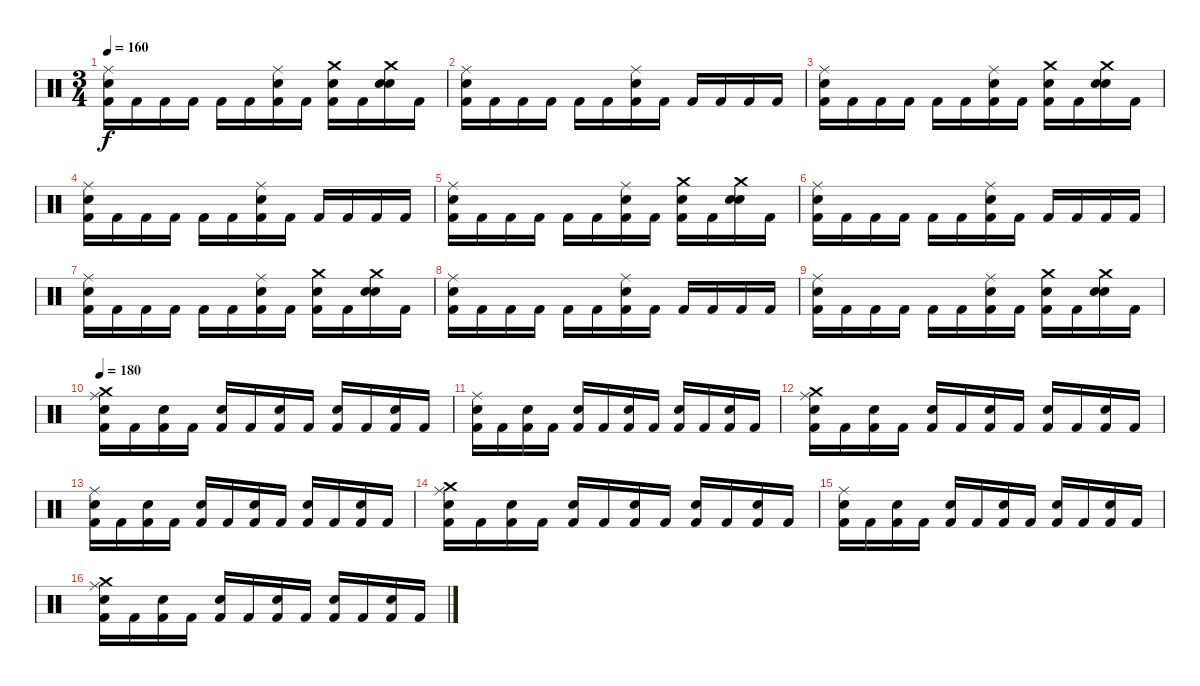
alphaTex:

\track "" {instrument percussion}
\staff {score}
\articulation defaults
\ts (3 4)
\tempo 160
\clef neutral
\ks c
("Ride (middle)" "Snare (hit) 2" "Kick (hit) 2").16{dy f} "Kick (hit) 2".16 "Kick (hit) 2".16 "Kick (hit) 2".16 "Kick (hit) 2".16 "Kick (hit) 2".16 ("Ride (middle)" "Snare (hit) 2" "Kick (hit) 2").16 "Kick (hit) 2".16 ("Crash medium (hit)" "Snare (hit) 2" "Kick (hit) 2").16 "Kick (hit) 2".16 ("Crash medium (hit)" "Snare (hit) 2" "Snare (hit) 2").16 "Kick (hit) 2".16 |
("Ride (middle)" "Snare (hit) 2" "Kick (hit) 2").16 "Kick (hit) 2".16 "Kick (hit) 2".16 "Kick (hit) 2".16 "Kick (hit) 2".16 "Kick (hit) 2".16 ("Ride (middle)" "Snare (hit) 2" "Kick (hit) 2").16 "Kick (hit) 2".16 "Kick (hit) 2".16 "Kick (hit) 2".16 "Kick (hit) 2".16 "Kick (hit) 2".16 |
("Ride (middle)" "Snare (hit) 2" "Kick (hit) 2").16 "Kick (hit) 2".16 "Kick (hit) 2".16 "Kick (hit) 2".16 "Kick (hit) 2".16 "Kick (hit) 2".16 ("Ride (middle)" "Snare (hit) 2" "Kick (hit) 2").16 "Kick (hit) 2".16 ("Crash medium (hit)" "Snare (hit) 2" "Kick (hit) 2").16 "Kick (hit) 2".16 ("Crash medium (hit)" "Snare (hit) 2" "Snare (hit) 2").16 "Kick (hit) 2".16 |
("Ride (middle)" "Snare (hit) 2" "Kick (hit) 2").16 "Kick (hit) 2".16 "Kick (hit) 2".16 "Kick (hit) 2".16 "Kick (hit) 2".16 "Kick (hit) 2".16 ("Ride (middle)" "Snare (hit) 2" "Kick (hit) 2").16 "Kick (hit) 2".16 "Kick (hit) 2".16 "Kick (hit) 2".16 "Kick (hit) 2".16 "Kick (hit) 2".16 |
("Ride (middle)" "Snare (hit) 2" "Kick (hit) 2").16 "Kick (hit) 2".16 "Kick (hit) 2".16 "Kick (hit) 2".16 "Kick (hit) 2".16 "Kick (hit) 2".16 ("Ride (middle)" "Snare (hit) 2" "Kick (hit) 2").16 "Kick (hit) 2".16 ("Crash medium (hit)" "Snare (hit) 2" "Kick (hit) 2").16 "Kick (hit) 2".16 ("Crash medium (hit)" "Snare (hit) 2" "Snare (hit) 2").16 "Kick (hit) 2".16 |
("Ride (middle)" "Snare (hit) 2" "Kick (hit) 2").16 "Kick (hit) 2".16 "Kick (hit) 2".16 "Kick (hit) 2".16 "Kick (hit) 2".16 "Kick (hit) 2".16 ("Ride (middle)" "Snare (hit) 2" "Kick (hit) 2").16 "Kick (hit) 2".16 "Kick (hit) 2".16 "Kick (hit) 2".16 "Kick (hit) 2".16 "Kick (hit) 2".16 |
("Ride (middle)" "Snare (hit) 2" "Kick (hit) 2").16 "Kick (hit) 2".16 "Kick (hit) 2".16 "Kick (hit) 2".16 "Kick (hit) 2".16 "Kick (hit) 2".16 ("Ride (middle)" "Snare (hit) 2" "Kick (hit) 2").16 "Kick (hit) 2".16 ("Crash medium (hit)" "Snare (hit) 2" "Kick (hit) 2").16 "Kick (hit) 2".16 ("Crash medium (hit)" "Snare (hit) 2" "Snare (hit) 2").16 "Kick (hit) 2".16 |
("Ride (middle)" "Snare (hit) 2" "Kick (hit) 2").16 "Kick (hit) 2".16 "Kick (hit) 2".16 "Kick (hit) 2".16 "Kick (hit) 2".16 "Kick (hit) 2".16 ("Ride (middle)" "Snare (hit) 2" "Kick (hit) 2").16 "Kick (hit) 2".16 "Kick (hit) 2".16 "Kick (hit) 2".16 "Kick (hit) 2".16 "Kick (hit) 2".16 |
("Ride (middle)" "Snare (hit) 2" "Kick (hit) 2").16 "Kick (hit) 2".16 "Kick (hit) 2".16 "Kick (hit) 2".16 "Kick (hit) 2".16 "Kick (hit) 2".16 ("Ride (middle)" "Snare (hit) 2" "Kick (hit) 2").16 "Kick (hit) 2".16 ("Crash medium (hit)" "Snare (hit) 2" "Kick (hit) 2").16 "Kick (hit) 2".16 ("Crash medium (hit)" "Snare (hit) 2" "Snare (hit) 2").16 "Kick (hit) 2".16 |
\tempo 180
("Crash medium (hit)" "Ride (middle)" "Snare (hit) 2" "Kick (hit) 2").16 "Kick (hit) 2".16 ("Snare (hit) 2" "Kick (hit) 2").16 "Kick (hit) 2".16 ("Snare (hit) 2" "Kick (hit) 2").16 "Kick (hit) 2".16 ("Snare (hit) 2" "Kick (hit) 2").16 "Kick (hit) 2".16 ("Snare (hit) 2" "Kick (hit) 2").16 "Kick (hit) 2".16 ("Snare (hit) 2" "Kick (hit) 2").16 "Kick (hit) 2".16 |
("Ride (middle)" "Snare (hit) 2" "Kick (hit) 2").16 "Kick (hit) 2".16 ("Snare (hit) 2" "Kick (hit) 2").16 "Kick (hit) 2".16 ("Snare (hit) 2" "Kick (hit) 2").16 "Kick (hit) 2".16 ("Snare (hit) 2" "Kick (hit) 2").16 "Kick (hit) 2".16 ("Snare (hit) 2" "Kick (hit) 2").16 "Kick (hit) 2".16 ("Snare (hit) 2" "Kick (hit) 2").16 "Kick (hit) 2".16 |
("Crash medium (hit)" "Ride (middle)" "Snare (hit) 2" "Kick (hit) 2").16 "Kick (hit) 2".16 ("Snare (hit) 2" "Kick (hit) 2").16 "Kick (hit) 2".16 ("Snare (hit) 2" "Kick (hit) 2").16 "Kick (hit) 2".16 ("Snare (hit) 2" "Kick (hit) 2").16 "Kick (hit) 2".16 ("Snare (hit) 2" "Kick (hit) 2").16 "Kick (hit) 2".16 ("Snare (hit) 2" "Kick (hit) 2").16 "Kick (hit) 2".16 |
("Ride (middle)" "Snare (hit) 2" "Kick (hit) 2").16 "Kick (hit) 2".16 ("Snare (hit) 2" "Kick (hit) 2").16 "Kick (hit) 2".16 ("Snare (hit) 2" "Kick (hit) 2").16 "Kick (hit) 2".16 ("Snare (hit) 2" "Kick (hit) 2").16 "Kick (hit) 2".16 ("Snare (hit) 2" "Kick (hit) 2").16 "Kick (hit) 2".16 ("Snare (hit) 2" "Kick (hit) 2").16 "Kick (hit) 2".16 |
("Crash medium (hit)" "Ride (middle)" "Snare (hit) 2" "Kick (hit) 2").16 "Kick (hit) 2".16 ("Snare (hit) 2" "Kick (hit) 2").16 "Kick (hit) 2".16 ("Snare (hit) 2" "Kick (hit) 2").16 "Kick (hit) 2".16 ("Snare (hit) 2" "Kick (hit) 2").16 "Kick (hit) 2".16 ("Snare (hit) 2" "Kick (hit) 2").16 "Kick (hit) 2".16 ("Snare (hit) 2" "Kick (hit) 2").16 "Kick (hit) 2".16 |
("Ride (middle)" "Snare (hit) 2" "Kick (hit) 2").16 "Kick (hit) 2".16 ("Snare (hit) 2" "Kick (hit) 2").16 "Kick (hit) 2".16 ("Snare (hit) 2" "Kick (hit) 2").16 "Kick (hit) 2".16 ("Snare (hit) 2" "Kick (hit) 2").16 "Kick (hit) 2".16 ("Snare (hit) 2" "Kick (hit) 2").16 "Kick (hit) 2".16 ("Snare (hit) 2" "Kick (hit) 2").16 "Kick (hit) 2".16 |
("Crash medium (hit)" "Ride (middle)" "Snare (hit) 2" "Kick (hit) 2").16 "Kick (hit) 2".16 ("Snare (hit) 2" "Kick (hit) 2").16 "Kick (hit) 2".16 ("Snare (hit) 2" "Kick (hit) 2").16 "Kick (hit) 2".16 ("Snare (hit) 2" "Kick (hit) 2").16 "Kick (hit) 2".16 ("Snare (hit) 2" "Kick (hit) 2").16 "Kick (hit) 2".16 ("Snare (hit) 2" "Kick (hit) 2").16 "Kick (hit) 2".16
